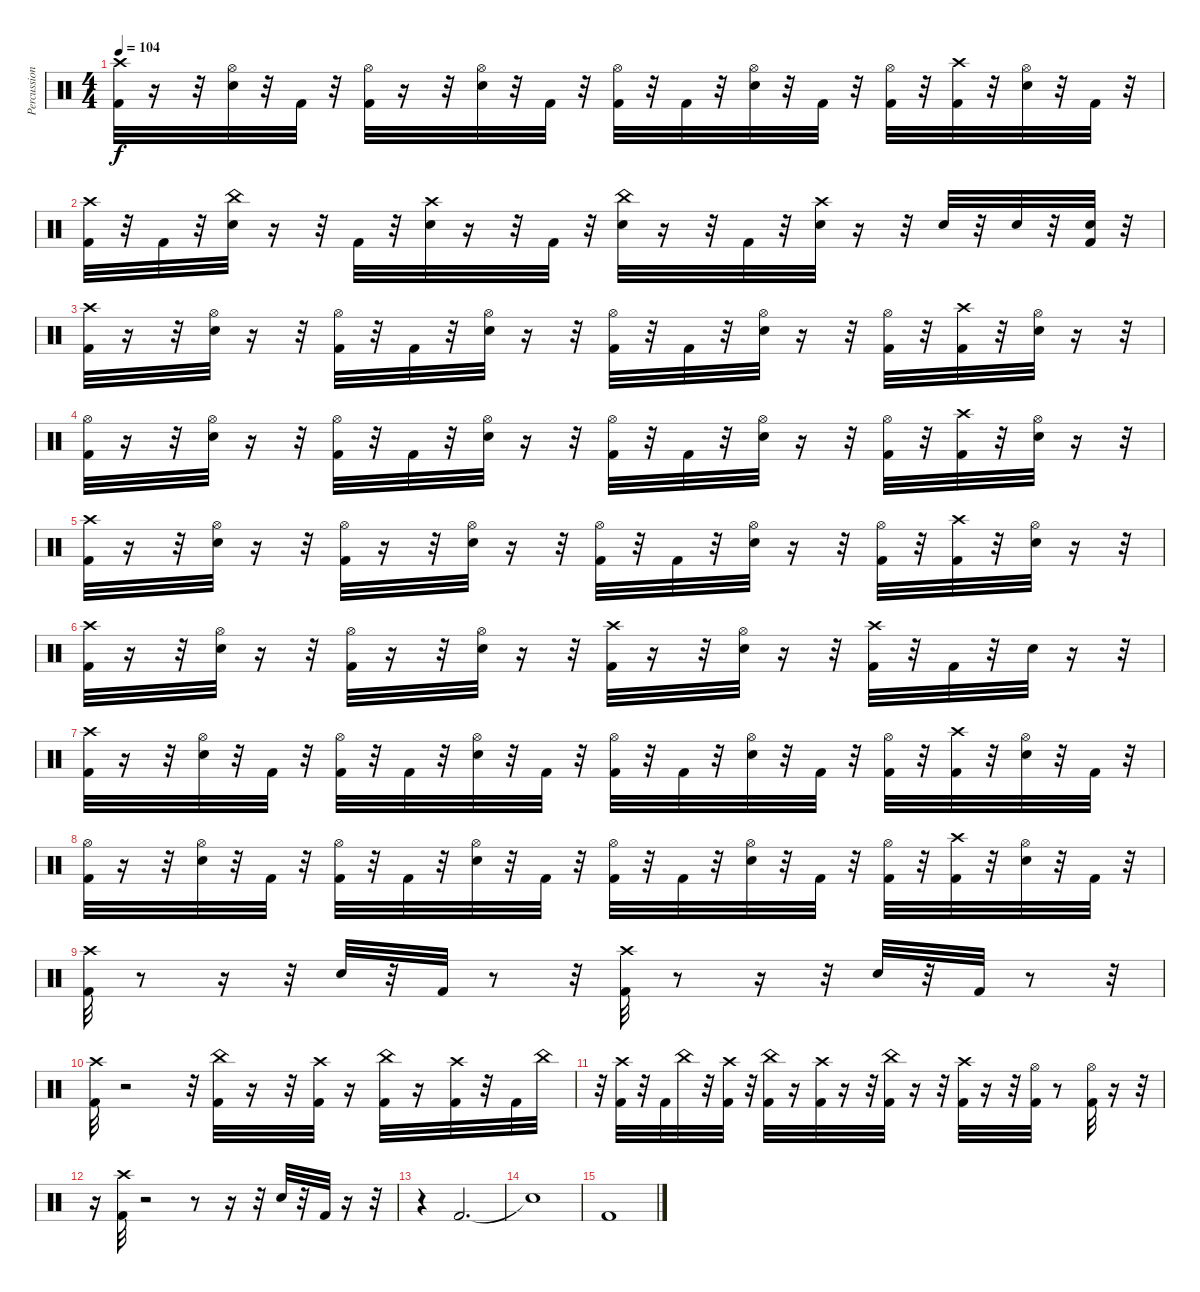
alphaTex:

\track ("Percussions" "Percussion") {instrument percussion}
\staff {score}
\articulation defaults
\ts (4 4)
\tempo 104
\clef neutral
\ks c
("Crash high (hit)" "Kick (hit) 2").32{dy f} r.16 r.32 ("Snare (hit) 2" "Hi-Hat (open)").32 r.32 "Kick (hit) 2".32 r.32 ("Hi-Hat (open)" "Kick (hit) 2").32 r.16 r.32 ("Hi-Hat (open)" "Snare (hit) 2").32 r.32 "Kick (hit) 2".32 r.32 ("Hi-Hat (open)" "Kick (hit) 2").32 r.32 "Kick (hit) 2".32 r.32 ("Snare (hit) 2" "Hi-Hat (open)").32 r.32 "Kick (hit) 2".32 r.32 ("Hi-Hat (open)" "Kick (hit) 2").32 r.32 ("Kick (hit) 2" "Crash high (hit)").32 r.32 ("Hi-Hat (open)" "Snare (hit) 2").32 r.32 "Kick (hit) 2".32 r.32 |
("Crash high (hit)" "Kick (hit) 2").32 r.32 "Kick (hit) 2".32 r.32 ("China (hit)" "Snare (hit) 2").32 r.16 r.32 "Kick (hit) 2".32 r.32 ("Snare (hit) 2" "Crash high (hit)").32 r.16 r.32 "Kick (hit) 2".32 r.32 ("Snare (hit) 2" "China (hit)").32 r.16 r.32 "Kick (hit) 2".32 r.32 ("Snare (hit) 2" "Crash high (hit)").32 r.16 r.32 "Snare (hit) 2".32 r.32 "Snare (hit) 2".32 r.32 ("Snare (hit) 2" "Kick (hit) 2").32 r.32 |
("Crash high (hit)" "Kick (hit) 2").32 r.16 r.32 ("Snare (hit) 2" "Hi-Hat (open)").32 r.16 r.32 ("Kick (hit) 2" "Hi-Hat (open)").32 r.32 "Kick (hit) 2".32 r.32 ("Hi-Hat (open)" "Snare (hit) 2").32 r.16 r.32 ("Kick (hit) 2" "Hi-Hat (open)").32 r.32 "Kick (hit) 2".32 r.32 ("Hi-Hat (open)" "Snare (hit) 2").32 r.16 r.32 ("Kick (hit) 2" "Hi-Hat (open)").32 r.32 ("Kick (hit) 2" "Crash high (hit)").32 r.32 ("Snare (hit) 2" "Hi-Hat (open)").32 r.16 r.32 |
("Hi-Hat (open)" "Kick (hit) 2").32 r.16 r.32 ("Hi-Hat (open)" "Snare (hit) 2").32 r.16 r.32 ("Hi-Hat (open)" "Kick (hit) 2").32 r.32 "Kick (hit) 2".32 r.32 ("Snare (hit) 2" "Hi-Hat (open)").32 r.16 r.32 ("Kick (hit) 2" "Hi-Hat (open)").32 r.32 "Kick (hit) 2".32 r.32 ("Snare (hit) 2" "Hi-Hat (open)").32 r.16 r.32 ("Kick (hit) 2" "Hi-Hat (open)").32 r.32 ("Crash high (hit)" "Kick (hit) 2").32 r.32 ("Snare (hit) 2" "Hi-Hat (open)").32 r.16 r.32 |
("Crash high (hit)" "Kick (hit) 2").32 r.16 r.32 ("Snare (hit) 2" "Hi-Hat (open)").32 r.16 r.32 ("Hi-Hat (open)" "Kick (hit) 2").32 r.16 r.32 ("Hi-Hat (open)" "Snare (hit) 2").32 r.16 r.32 ("Hi-Hat (open)" "Kick (hit) 2").32 r.32 "Kick (hit) 2".32 r.32 ("Snare (hit) 2" "Hi-Hat (open)").32 r.16 r.32 ("Hi-Hat (open)" "Kick (hit) 2").32 r.32 ("Kick (hit) 2" "Crash high (hit)").32 r.32 ("Hi-Hat (open)" "Snare (hit) 2").32 r.16 r.32 |
("Crash high (hit)" "Kick (hit) 2").32 r.16 r.32 ("Hi-Hat (open)" "Snare (hit) 2").32 r.16 r.32 ("Kick (hit) 2" "Hi-Hat (open)").32 r.16 r.32 ("Hi-Hat (open)" "Snare (hit) 2").32 r.16 r.32 ("Crash high (hit)" "Kick (hit) 2").32 r.16 r.32 ("Hi-Hat (open)" "Snare (hit) 2").32 r.16 r.32 ("Kick (hit) 2" "Crash high (hit)").32 r.32 "Kick (hit) 2".32 r.32 "Snare (hit) 2".32 r.16 r.32 |
("Crash high (hit)" "Kick (hit) 2").32 r.16 r.32 ("Snare (hit) 2" "Hi-Hat (open)").32 r.32 "Kick (hit) 2".32 r.32 ("Kick (hit) 2" "Hi-Hat (open)").32 r.32 "Kick (hit) 2".32 r.32 ("Hi-Hat (open)" "Snare (hit) 2").32 r.32 "Kick (hit) 2".32 r.32 ("Kick (hit) 2" "Hi-Hat (open)").32 r.32 "Kick (hit) 2".32 r.32 ("Hi-Hat (open)" "Snare (hit) 2").32 r.32 "Kick (hit) 2".32 r.32 ("Kick (hit) 2" "Hi-Hat (open)").32 r.32 ("Kick (hit) 2" "Crash high (hit)").32 r.32 ("Snare (hit) 2" "Hi-Hat (open)").32 r.32 "Kick (hit) 2".32 r.32 |
("Hi-Hat (open)" "Kick (hit) 2").32 r.16 r.32 ("Hi-Hat (open)" "Snare (hit) 2").32 r.32 "Kick (hit) 2".32 r.32 ("Hi-Hat (open)" "Kick (hit) 2").32 r.32 "Kick (hit) 2".32 r.32 ("Snare (hit) 2" "Hi-Hat (open)").32 r.32 "Kick (hit) 2".32 r.32 ("Kick (hit) 2" "Hi-Hat (open)").32 r.32 "Kick (hit) 2".32 r.32 ("Snare (hit) 2" "Hi-Hat (open)").32 r.32 "Kick (hit) 2".32 r.32 ("Kick (hit) 2" "Hi-Hat (open)").32 r.32 ("Crash high (hit)" "Kick (hit) 2").32 r.32 ("Snare (hit) 2" "Hi-Hat (open)").32 r.32 "Kick (hit) 2".32 r.32 |
("Crash high (hit)" "Kick (hit) 2").32 r.8 r.16 r.32 "Snare (hit) 2".32 r.32 "Kick (hit) 2".32 r.8 r.32 ("Crash high (hit)" "Kick (hit) 2").32 r.8 r.16 r.32 "Snare (hit) 2".32 r.32 "Kick (hit) 2".32 r.8 r.32 |
("Kick (hit) 2" "Crash high (hit)").32 r.2 r.32 ("Kick (hit) 2" "China (hit)").32 r.16 r.32 ("Kick (hit) 2" "Crash high (hit)").32 r.16 ("China (hit)" "Kick (hit) 2").32 r.16 ("Kick (hit) 2" "Crash high (hit)").32 r.32 "Kick (hit) 2".32 "China (hit)".32 |
r.32 ("Kick (hit) 2" "Crash high (hit)").32 r.32 "Kick (hit) 2".32 "China (hit)".32 r.32 ("Kick (hit) 2" "Crash high (hit)").32 r.32 ("Kick (hit) 2" "China (hit)").32 r.16 ("Crash high (hit)" "Kick (hit) 2").32 r.16 r.32 ("Kick (hit) 2" "China (hit)").32 r.16 r.32 ("Crash high (hit)" "Kick (hit) 2").32 r.16 r.32 ("Kick (hit) 2" "Hi-Hat (open)").32 r.8 ("Hi-Hat (open)" "Kick (hit) 2").32 r.16 r.32 |
r.16 ("Crash high (hit)" "Kick (hit) 2").32 r.2 r.8 r.16 r.32 "Snare (hit) 2".32 r.32 "Kick (hit) 2".32 r.16 r.32 |
r.4 "Kick (hit) 2".2{d} |
"Snare (hit)"{t}.1 |
"Kick (hit) 2".1
